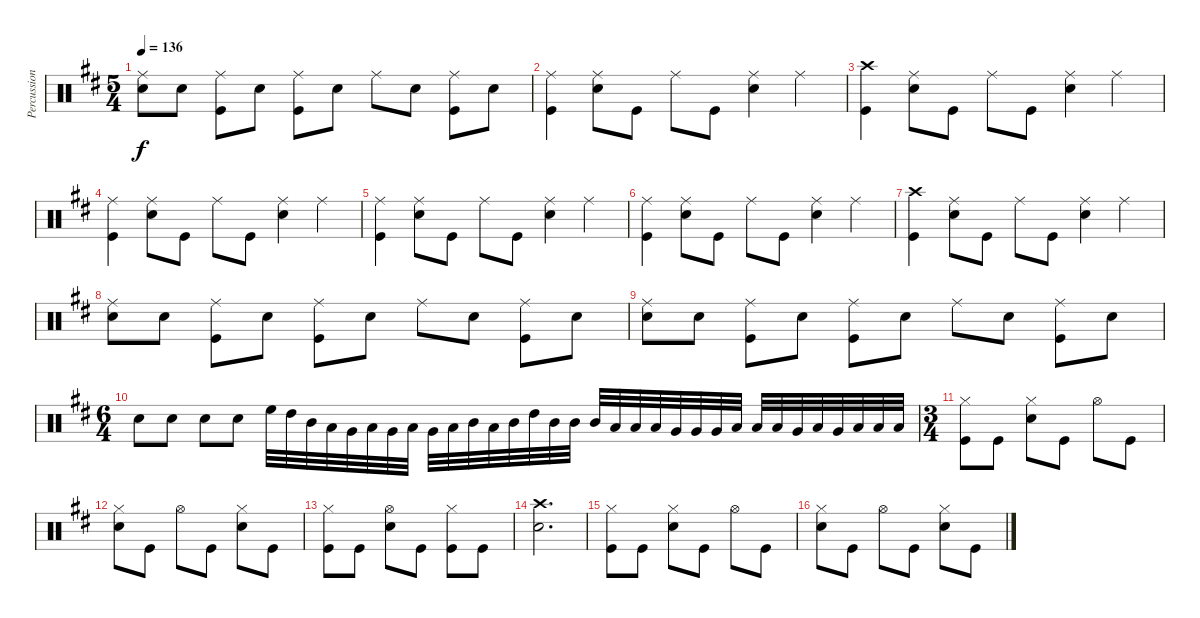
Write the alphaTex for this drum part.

\track ("Percussion" "Percussion") {instrument percussion}
\staff {score}
\articulation defaults
\ts (5 4)
\tempo 136
\clef neutral
\ks d
("Snare (hit) 2" "Ride (middle)").8{dy f} "Snare (hit) 2".8 ("Ride (middle)" "Kick (hit)").8 "Snare (hit) 2".8 ("Ride (middle)" "Kick (hit)").8 "Snare (hit) 2".8 "Ride (middle)".8 "Snare (hit) 2".8 ("Ride (middle)" "Kick (hit)").8 "Snare (hit) 2".8 |
("Ride (middle)" "Kick (hit)").4 ("Ride (middle)" "Snare (hit) 2").8 "Kick (hit)".8 "Ride (middle)".8 "Kick (hit)".8 ("Snare (hit) 2" "Ride (middle)").4 "Ride (middle)".4 |
("Crash high (hit)" "Kick (hit)").4 ("Ride (middle)" "Snare (hit) 2").8 "Kick (hit)".8 "Ride (middle)".8 "Kick (hit)".8 ("Snare (hit) 2" "Ride (middle)").4 "Ride (middle)".4 |
("Ride (middle)" "Kick (hit)").4 ("Ride (middle)" "Snare (hit) 2").8 "Kick (hit)".8 "Ride (middle)".8 "Kick (hit)".8 ("Snare (hit) 2" "Ride (middle)").4 "Ride (middle)".4 |
("Ride (middle)" "Kick (hit)").4 ("Ride (middle)" "Snare (hit) 2").8 "Kick (hit)".8 "Ride (middle)".8 "Kick (hit)".8 ("Snare (hit) 2" "Ride (middle)").4 "Ride (middle)".4 |
("Ride (middle)" "Kick (hit)").4 ("Ride (middle)" "Snare (hit) 2").8 "Kick (hit)".8 "Ride (middle)".8 "Kick (hit)".8 ("Snare (hit) 2" "Ride (middle)").4 "Ride (middle)".4 |
("Crash high (hit)" "Kick (hit)").4 ("Ride (middle)" "Snare (hit) 2").8 "Kick (hit)".8 "Ride (middle)".8 "Kick (hit)".8 ("Snare (hit) 2" "Ride (middle)").4 "Ride (middle)".4 |
("Snare (hit) 2" "Ride (middle)").8 "Snare (hit) 2".8 ("Ride (middle)" "Kick (hit)").8 "Snare (hit) 2".8 ("Ride (middle)" "Kick (hit)").8 "Snare (hit) 2".8 "Ride (middle)".8 "Snare (hit) 2".8 ("Ride (middle)" "Kick (hit)").8 "Snare (hit) 2".8 |
("Snare (hit) 2" "Ride (middle)").8 "Snare (hit) 2".8 ("Ride (middle)" "Kick (hit)").8 "Snare (hit) 2".8 ("Ride (middle)" "Kick (hit)").8 "Snare (hit) 2".8 "Ride (middle)".8 "Snare (hit) 2".8 ("Ride (middle)" "Kick (hit)").8 "Snare (hit) 2".8 |
\ts (6 4)
"Snare (hit) 2".8 "Snare (hit) 2".8 "Snare (hit) 2".8 "Snare (hit) 2".8 "High Floor Tom (hit)".32 "High Tom (hit)".32 "Mid Tom (hit)".32 "Low Tom (hit)".32 "Very Low Tom (hit)".32 "Low Floor Tom (hit)".32 "Very Low Tom (hit)".32 "Low Tom (hit)".32 "Very Low Tom (hit)".32 "Low Tom (hit)".32 "Mid Tom (hit)".32 "Low Tom (hit)".32 "Mid Tom (hit)".32 "High Tom (hit)".32 "Mid Tom (hit)".32 "Mid Tom (hit)".32 "Mid Tom (hit)".32 "Low Tom (hit)".32 "Low Tom (hit)".32 "Low Tom (hit)".32 "Very Low Tom (hit)".32 "Very Low Tom (hit)".32 "Very Low Tom (hit)".32 "Low Floor Tom (hit)".32 "Low Floor Tom (hit)".32 "Low Floor Tom (hit)".32 "Very Low Tom (hit)".32 "Low Tom (hit)".32 "Very Low Tom (hit)".32 "Low Tom (hit)".32 "Low Tom (hit)".32 "Low Tom (hit)".32 |
\ts (3 4)
("Kick (hit)" "Hi-Hat (closed)").8 "Kick (hit)".8 ("Snare (hit) 2" "Hi-Hat (closed)").8 "Kick (hit)".8 "Hi-Hat (open)".8 "Kick (hit)".8 |
("Snare (hit) 2" "Hi-Hat (closed)").8 "Kick (hit)".8 "Hi-Hat (open)".8 "Kick (hit)".8 ("Hi-Hat (closed)" "Snare (hit) 2").8 "Kick (hit)".8 |
("Kick (hit)" "Hi-Hat (closed)").8 "Kick (hit)".8 ("Snare (hit) 2" "Hi-Hat (open)").8 "Kick (hit)".8 ("Kick (hit)" "Hi-Hat (closed)").8 "Kick (hit)".8 |
("Snare (hit) 2" "Crash high (hit)").2{d} |
("Kick (hit)" "Hi-Hat (closed)").8 "Kick (hit)".8 ("Snare (hit) 2" "Hi-Hat (closed)").8 "Kick (hit)".8 "Hi-Hat (open)".8 "Kick (hit)".8 |
("Snare (hit) 2" "Hi-Hat (closed)").8 "Kick (hit)".8 "Hi-Hat (open)".8 "Kick (hit)".8 ("Hi-Hat (closed)" "Snare (hit) 2").8 "Kick (hit)".8
